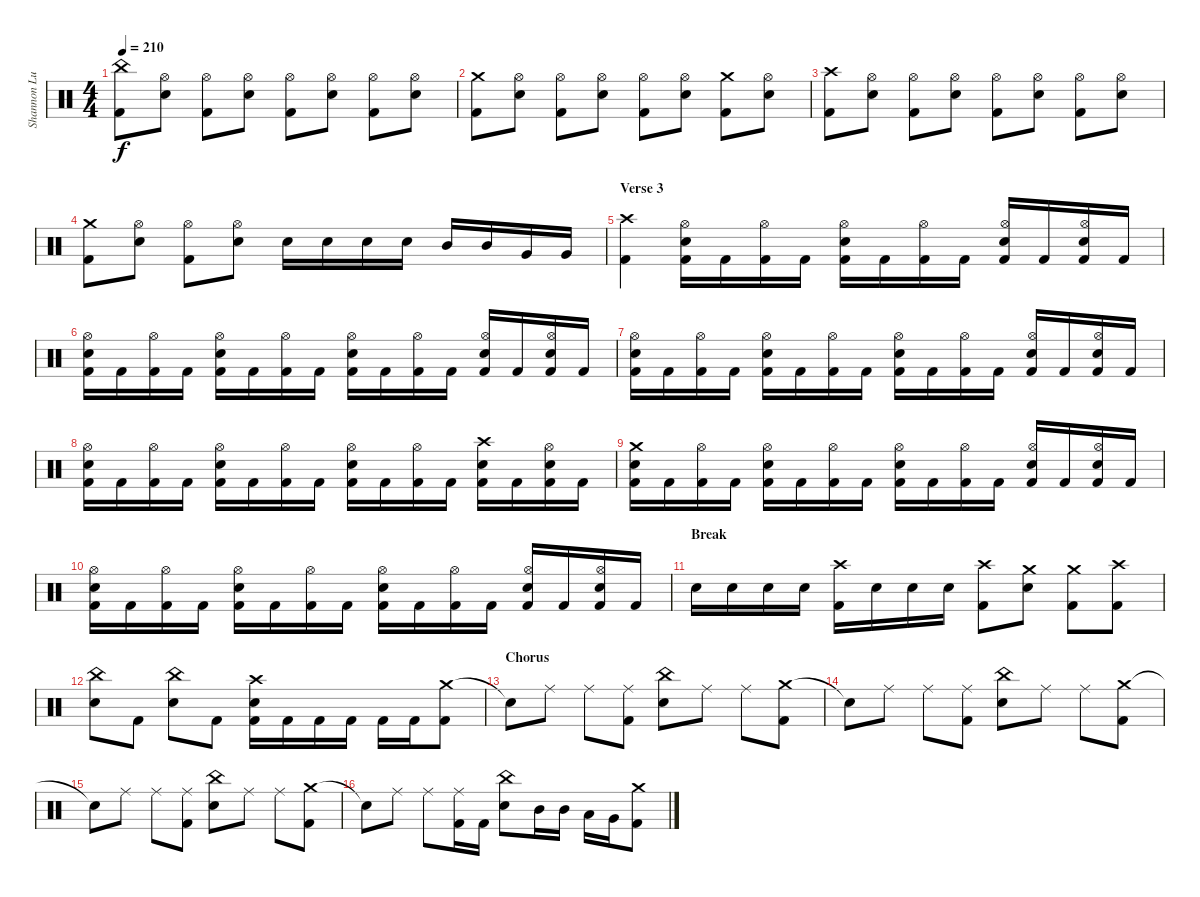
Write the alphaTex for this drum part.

\track ("Shannon Lucas [Drums (Since 2007)]" "Shannon Lu") {instrument percussion}
\staff {score}
\articulation defaults
\ts (4 4)
\tempo 210
\clef neutral
\ks c
("China (hit)" "Kick (hit) 2").8{dy f} ("Hi-Hat (open)" "Snare (hit) 2").8 ("Hi-Hat (open)" "Kick (hit) 2").8 ("Hi-Hat (open)" "Snare (hit) 2").8 ("Hi-Hat (open)" "Kick (hit) 2").8 ("Hi-Hat (open)" "Snare (hit) 2").8 ("Hi-Hat (open)" "Kick (hit) 2").8 ("Hi-Hat (open)" "Snare (hit) 2").8 |
("Crash medium (hit)" "Kick (hit) 2").8 ("Hi-Hat (open)" "Snare (hit) 2").8 ("Hi-Hat (open)" "Kick (hit) 2").8 ("Hi-Hat (open)" "Snare (hit) 2").8 ("Hi-Hat (open)" "Kick (hit) 2").8 ("Hi-Hat (open)" "Snare (hit) 2").8 ("Crash medium (hit)" "Kick (hit) 2").8 ("Hi-Hat (open)" "Snare (hit) 2").8 |
("Crash high (hit)" "Kick (hit) 2").8 ("Hi-Hat (open)" "Snare (hit) 2").8 ("Hi-Hat (open)" "Kick (hit) 2").8 ("Hi-Hat (open)" "Snare (hit) 2").8 ("Hi-Hat (open)" "Kick (hit) 2").8 ("Hi-Hat (open)" "Snare (hit) 2").8 ("Hi-Hat (open)" "Kick (hit) 2").8 ("Hi-Hat (open)" "Snare (hit) 2").8 |
("Crash medium (hit)" "Kick (hit) 2").8 ("Hi-Hat (open)" "Snare (hit) 2").8 ("Hi-Hat (open)" "Kick (hit) 2").8 ("Hi-Hat (open)" "Snare (hit) 2").8 "Snare (hit) 2".16 "Snare (hit) 2".16 "Snare (hit) 2".16 "Snare (hit) 2".16 "Mid Tom (hit)".16 "Mid Tom (hit)".16 "Very Low Tom (hit)".16 "Very Low Tom (hit)".16 |
\section ("" "Verse 3")
("Crash high (hit)" "Kick (hit) 2").4 ("Hi-Hat (open)" "Snare (hit) 2" "Kick (hit) 2").16 "Kick (hit) 2".16 ("Hi-Hat (open)" "Kick (hit) 2").16 "Kick (hit) 2".16 ("Hi-Hat (open)" "Snare (hit) 2" "Kick (hit) 2").16 "Kick (hit) 2".16 ("Hi-Hat (open)" "Kick (hit) 2").16 "Kick (hit) 2".16 ("Hi-Hat (open)" "Snare (hit) 2" "Kick (hit) 2").16 "Kick (hit) 2".16 ("Hi-Hat (open)" "Snare (hit) 2" "Kick (hit) 2").16 "Kick (hit) 2".16 |
("Hi-Hat (open)" "Snare (hit) 2" "Kick (hit) 2").16 "Kick (hit) 2".16 ("Hi-Hat (open)" "Kick (hit) 2").16 "Kick (hit) 2".16 ("Hi-Hat (open)" "Snare (hit) 2" "Kick (hit) 2").16 "Kick (hit) 2".16 ("Hi-Hat (open)" "Kick (hit) 2").16 "Kick (hit) 2".16 ("Hi-Hat (open)" "Snare (hit) 2" "Kick (hit) 2").16 "Kick (hit) 2".16 ("Hi-Hat (open)" "Kick (hit) 2").16 "Kick (hit) 2".16 ("Hi-Hat (open)" "Snare (hit) 2" "Kick (hit) 2").16 "Kick (hit) 2".16 ("Hi-Hat (open)" "Snare (hit) 2" "Kick (hit) 2").16 "Kick (hit) 2".16 |
("Hi-Hat (open)" "Snare (hit) 2" "Kick (hit) 2").16 "Kick (hit) 2".16 ("Hi-Hat (open)" "Kick (hit) 2").16 "Kick (hit) 2".16 ("Hi-Hat (open)" "Snare (hit) 2" "Kick (hit) 2").16 "Kick (hit) 2".16 ("Hi-Hat (open)" "Kick (hit) 2").16 "Kick (hit) 2".16 ("Hi-Hat (open)" "Snare (hit) 2" "Kick (hit) 2").16 "Kick (hit) 2".16 ("Hi-Hat (open)" "Kick (hit) 2").16 "Kick (hit) 2".16 ("Hi-Hat (open)" "Snare (hit) 2" "Kick (hit) 2").16 "Kick (hit) 2".16 ("Hi-Hat (open)" "Snare (hit) 2" "Kick (hit) 2").16 "Kick (hit) 2".16 |
("Hi-Hat (open)" "Snare (hit) 2" "Kick (hit) 2").16 "Kick (hit) 2".16 ("Hi-Hat (open)" "Kick (hit) 2").16 "Kick (hit) 2".16 ("Hi-Hat (open)" "Snare (hit) 2" "Kick (hit) 2").16 "Kick (hit) 2".16 ("Hi-Hat (open)" "Kick (hit) 2").16 "Kick (hit) 2".16 ("Hi-Hat (open)" "Snare (hit) 2" "Kick (hit) 2").16 "Kick (hit) 2".16 ("Hi-Hat (open)" "Kick (hit) 2").16 "Kick (hit) 2".16 ("Crash high (hit)" "Snare (hit) 2" "Kick (hit) 2").16 "Kick (hit) 2".16 ("Hi-Hat (open)" "Snare (hit) 2" "Kick (hit) 2").16 "Kick (hit) 2".16 |
("Crash medium (hit)" "Snare (hit) 2" "Kick (hit) 2").16 "Kick (hit) 2".16 ("Hi-Hat (open)" "Kick (hit) 2").16 "Kick (hit) 2".16 ("Hi-Hat (open)" "Snare (hit) 2" "Kick (hit) 2").16 "Kick (hit) 2".16 ("Hi-Hat (open)" "Kick (hit) 2").16 "Kick (hit) 2".16 ("Hi-Hat (open)" "Snare (hit) 2" "Kick (hit) 2").16 "Kick (hit) 2".16 ("Hi-Hat (open)" "Kick (hit) 2").16 "Kick (hit) 2".16 ("Hi-Hat (open)" "Snare (hit) 2" "Kick (hit) 2").16 "Kick (hit) 2".16 ("Hi-Hat (open)" "Snare (hit) 2" "Kick (hit) 2").16 "Kick (hit) 2".16 |
("Hi-Hat (open)" "Snare (hit) 2" "Kick (hit) 2").16 "Kick (hit) 2".16 ("Hi-Hat (open)" "Kick (hit) 2").16 "Kick (hit) 2".16 ("Hi-Hat (open)" "Snare (hit) 2" "Kick (hit) 2").16 "Kick (hit) 2".16 ("Hi-Hat (open)" "Kick (hit) 2").16 "Kick (hit) 2".16 ("Hi-Hat (open)" "Snare (hit) 2" "Kick (hit) 2").16 "Kick (hit) 2".16 ("Hi-Hat (open)" "Kick (hit) 2").16 "Kick (hit) 2".16 ("Hi-Hat (open)" "Snare (hit) 2" "Kick (hit) 2").16 "Kick (hit) 2".16 ("Hi-Hat (open)" "Snare (hit) 2" "Kick (hit) 2").16 "Kick (hit) 2".16 |
\section ("" "Break")
"Snare (hit) 2".16 "Snare (hit) 2".16 "Snare (hit) 2".16 "Snare (hit) 2".16 ("Crash high (hit)" "Kick (hit) 2").16 "Snare (hit) 2".16 "Snare (hit) 2".16 "Snare (hit) 2".16 ("Crash high (hit)" "Kick (hit) 2").8 ("Crash medium (hit)" "Snare (hit) 2").8 ("Crash medium (hit)" "Kick (hit) 2").8 ("Crash high (hit)" "Kick (hit) 2").8 |
("China (hit)" "Snare (hit) 2").8 "Kick (hit) 2".8 ("China (hit)" "Snare (hit) 2").8 "Kick (hit) 2".8 ("Kick (hit) 2" "Crash high (hit)" "Snare (hit) 2").16 "Kick (hit) 2".16 "Kick (hit) 2".16 "Kick (hit) 2".16 "Kick (hit) 2".16 "Kick (hit) 2".16 ("Crash medium (hit)" "Kick (hit) 2").8 |
\section ("" "Chorus")
"Snare (hit)"{t}.8 "Ride (middle)".8 "Ride (middle)".8 ("Ride (middle)" "Kick (hit) 2").8 ("China (hit)" "Snare (hit) 2").8 "Ride (middle)".8 "Ride (middle)".8 ("Crash medium (hit)" "Kick (hit) 2").8 |
"Snare (hit)"{t}.8 "Ride (middle)".8 "Ride (middle)".8 ("Ride (middle)" "Kick (hit) 2").8 ("China (hit)" "Snare (hit) 2").8 "Ride (middle)".8 "Ride (middle)".8 ("Crash medium (hit)" "Kick (hit) 2").8 |
"Snare (hit)"{t}.8 "Ride (middle)".8 "Ride (middle)".8 ("Ride (middle)" "Kick (hit) 2").8 ("China (hit)" "Snare (hit) 2").8 "Ride (middle)".8 "Ride (middle)".8 ("Crash medium (hit)" "Kick (hit) 2").8 |
"Snare (hit)"{t}.8 "Ride (middle)".8 "Ride (middle)".8 ("Ride (middle)" "Kick (hit) 2").16 "Kick (hit) 2".16 ("China (hit)" "Snare (hit) 2").8 "Mid Tom (hit)".16 "Mid Tom (hit)".16 "Low Tom (hit)".16 "Very Low Tom (hit)".16 ("Crash medium (hit)" "Kick (hit) 2").8
